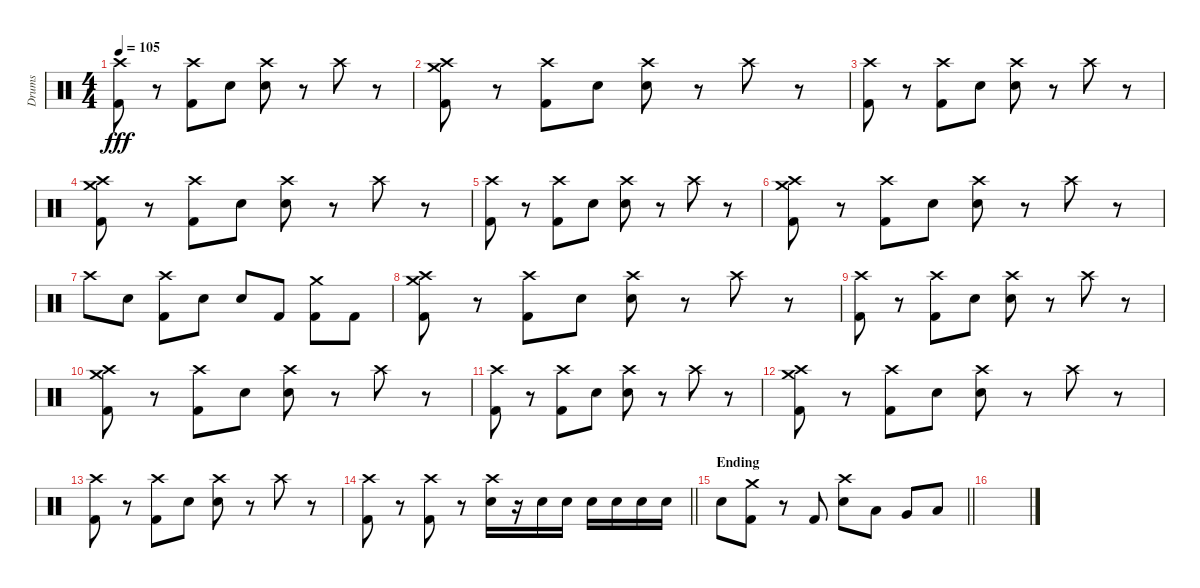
\track ("Drums" "Drums") {instrument percussion}
\staff {score}
\articulation defaults
\ts (4 4)
\tempo 105
\clef neutral
\ks c
("Crash high (hit)" "Kick (hit) 2").8{dy fff} r.8 ("Crash high (hit)" "Kick (hit) 2").8 "Electric Snare (hit)".8 ("Crash high (hit)" "Electric Snare (hit)").8 r.8 "Crash high (hit)".8 r.8 |
("Crash medium (hit)" "Crash high (hit)" "Kick (hit) 2").8 r.8 ("Crash high (hit)" "Kick (hit) 2").8 "Electric Snare (hit)".8 ("Crash high (hit)" "Electric Snare (hit)").8 r.8 "Crash high (hit)".8 r.8 |
("Crash high (hit)" "Kick (hit) 2").8 r.8 ("Crash high (hit)" "Kick (hit) 2").8 "Electric Snare (hit)".8 ("Crash high (hit)" "Electric Snare (hit)").8 r.8 "Crash high (hit)".8 r.8 |
("Crash medium (hit)" "Crash high (hit)" "Kick (hit) 2").8 r.8 ("Crash high (hit)" "Kick (hit) 2").8 "Electric Snare (hit)".8 ("Crash high (hit)" "Electric Snare (hit)").8 r.8 "Crash high (hit)".8 r.8 |
("Crash high (hit)" "Kick (hit) 2").8 r.8 ("Crash high (hit)" "Kick (hit) 2").8 "Electric Snare (hit)".8 ("Crash high (hit)" "Electric Snare (hit)").8 r.8 "Crash high (hit)".8 r.8 |
("Crash medium (hit)" "Crash high (hit)" "Kick (hit) 2").8 r.8 ("Crash high (hit)" "Kick (hit) 2").8 "Electric Snare (hit)".8 ("Crash high (hit)" "Electric Snare (hit)").8 r.8 "Crash high (hit)".8 r.8 |
"Crash high (hit)".8 "Electric Snare (hit)".8 ("Crash high (hit)" "Kick (hit) 2").8 "Electric Snare (hit)".8 "Electric Snare (hit)".8 "Kick (hit) 2".8 ("Crash medium (hit)" "Kick (hit) 2").8 "Kick (hit) 2".8 |
("Crash medium (hit)" "Crash high (hit)" "Kick (hit) 2").8 r.8 ("Crash high (hit)" "Kick (hit) 2").8 "Electric Snare (hit)".8 ("Crash high (hit)" "Electric Snare (hit)").8 r.8 "Crash high (hit)".8 r.8 |
("Crash high (hit)" "Kick (hit) 2").8 r.8 ("Crash high (hit)" "Kick (hit) 2").8 "Electric Snare (hit)".8 ("Crash high (hit)" "Electric Snare (hit)").8 r.8 "Crash high (hit)".8 r.8 |
("Crash medium (hit)" "Crash high (hit)" "Kick (hit) 2").8 r.8 ("Crash high (hit)" "Kick (hit) 2").8 "Electric Snare (hit)".8 ("Crash high (hit)" "Electric Snare (hit)").8 r.8 "Crash high (hit)".8 r.8 |
("Crash high (hit)" "Kick (hit) 2").8 r.8 ("Crash high (hit)" "Kick (hit) 2").8 "Electric Snare (hit)".8 ("Crash high (hit)" "Electric Snare (hit)").8 r.8 "Crash high (hit)".8 r.8 |
("Crash medium (hit)" "Crash high (hit)" "Kick (hit) 2").8 r.8 ("Crash high (hit)" "Kick (hit) 2").8 "Electric Snare (hit)".8 ("Crash high (hit)" "Electric Snare (hit)").8 r.8 "Crash high (hit)".8 r.8 |
("Crash high (hit)" "Kick (hit) 2").8 r.8 ("Crash high (hit)" "Kick (hit) 2").8 "Electric Snare (hit)".8 ("Crash high (hit)" "Electric Snare (hit)").8 r.8 "Crash high (hit)".8 r.8 |
\barLineRight lightlight
("Crash high (hit)" "Kick (hit) 2").8 r.8 ("Crash high (hit)" "Kick (hit) 2").8 r.8 ("Crash high (hit)" "Electric Snare (hit)").16 r.16 "Electric Snare (hit)".16 "Electric Snare (hit)".16 "Electric Snare (hit)".16 "Electric Snare (hit)".16 "Electric Snare (hit)".16 "Electric Snare (hit)".16 |
\section ("" "Ending")
\barLineRight lightlight "Electric Snare (hit)".8
("Crash medium (hit)" "Kick (hit) 2").8 r.8 "Kick (hit) 2".8 ("Crash high (hit)" "Electric Snare (hit)").8 "Low Tom (hit)".8 "Very Low Tom (hit)".8 "Low Floor Tom (hit)".8 |
\section ("" "")
